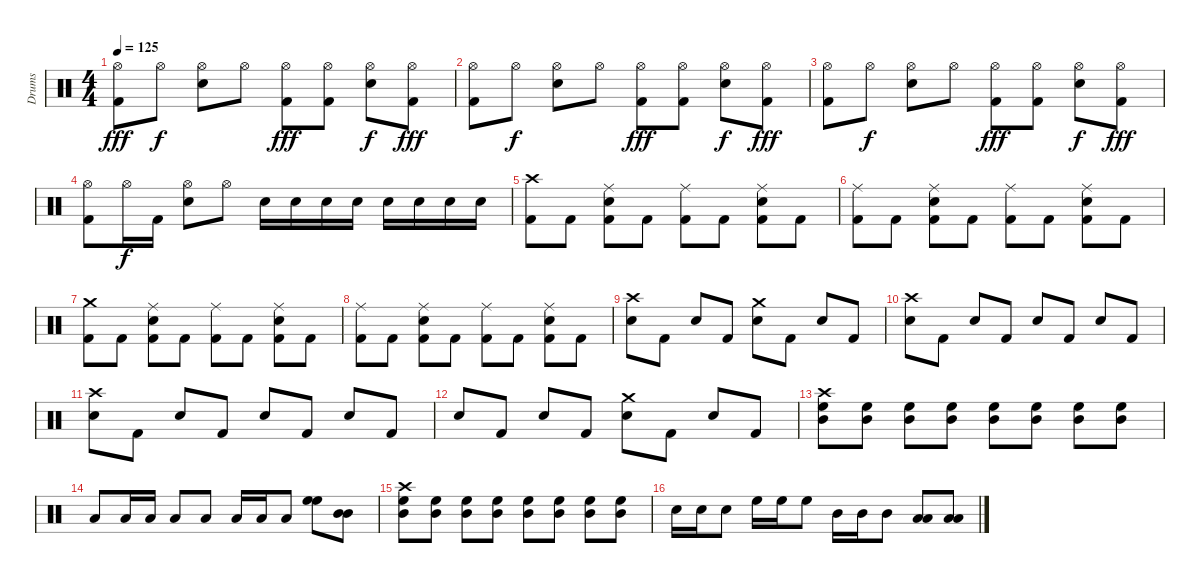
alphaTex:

\track ("Drums" "Drums") {instrument percussion}
\staff {score}
\articulation defaults
\ts (4 4)
\tempo 125
\clef neutral
\ks c
("Hi-Hat (open)" "Kick (hit) 2").8{dy fff} "Hi-Hat (open)".8{dy f} ("Hi-Hat (open)" "Snare (hit) 2").8 "Hi-Hat (open)".8 ("Hi-Hat (open)" "Kick (hit) 2").8{dy fff} ("Hi-Hat (open)" "Kick (hit) 2").8 ("Hi-Hat (open)" "Snare (hit) 2").8{dy f} ("Hi-Hat (open)" "Kick (hit) 2").8{dy fff} |
("Hi-Hat (open)" "Kick (hit) 2").8 "Hi-Hat (open)".8{dy f} ("Hi-Hat (open)" "Snare (hit) 2").8 "Hi-Hat (open)".8 ("Hi-Hat (open)" "Kick (hit) 2").8{dy fff} ("Hi-Hat (open)" "Kick (hit) 2").8 ("Hi-Hat (open)" "Snare (hit) 2").8{dy f} ("Hi-Hat (open)" "Kick (hit) 2").8{dy fff} |
("Hi-Hat (open)" "Kick (hit) 2").8 "Hi-Hat (open)".8{dy f} ("Hi-Hat (open)" "Snare (hit) 2").8 "Hi-Hat (open)".8 ("Hi-Hat (open)" "Kick (hit) 2").8{dy fff} ("Hi-Hat (open)" "Kick (hit) 2").8 ("Hi-Hat (open)" "Snare (hit) 2").8{dy f} ("Hi-Hat (open)" "Kick (hit) 2").8{dy fff} |
("Hi-Hat (open)" "Kick (hit) 2").8 "Hi-Hat (open)".16{dy f} "Kick (hit) 2".16 ("Hi-Hat (open)" "Snare (hit) 2").8 "Hi-Hat (open)".8 "Snare (hit) 2".16 "Snare (hit) 2".16 "Snare (hit) 2".16 "Snare (hit) 2".16 "Snare (hit) 2".16 "Snare (hit) 2".16 "Snare (hit) 2".16 "Snare (hit) 2".16 |
("Crash high (hit)" "Kick (hit) 2").8 "Kick (hit) 2".8 ("Ride (middle)" "Snare (hit) 2" "Kick (hit) 2").8 "Kick (hit) 2".8 ("Ride (middle)" "Kick (hit) 2").8 "Kick (hit) 2".8 ("Ride (middle)" "Snare (hit) 2" "Kick (hit) 2").8 "Kick (hit) 2".8 |
("Ride (middle)" "Kick (hit) 2").8 "Kick (hit) 2".8 ("Ride (middle)" "Snare (hit) 2" "Kick (hit) 2").8 "Kick (hit) 2".8 ("Ride (middle)" "Kick (hit) 2").8 "Kick (hit) 2".8 ("Ride (middle)" "Snare (hit) 2" "Kick (hit) 2").8 "Kick (hit) 2".8 |
("Crash medium (hit)" "Kick (hit) 2").8 "Kick (hit) 2".8 ("Ride (middle)" "Snare (hit) 2" "Kick (hit) 2").8 "Kick (hit) 2".8 ("Ride (middle)" "Kick (hit) 2").8 "Kick (hit) 2".8 ("Ride (middle)" "Snare (hit) 2" "Kick (hit) 2").8 "Kick (hit) 2".8 |
("Ride (middle)" "Kick (hit) 2").8 "Kick (hit) 2".8 ("Ride (middle)" "Snare (hit) 2" "Kick (hit) 2").8 "Kick (hit) 2".8 ("Ride (middle)" "Kick (hit) 2").8 "Kick (hit) 2".8 ("Ride (middle)" "Snare (hit) 2" "Kick (hit) 2").8 "Kick (hit) 2".8 |
("Crash high (hit)" "Snare (hit) 2").8 "Kick (hit) 2".8 "Snare (hit) 2".8 "Kick (hit) 2".8 ("Crash medium (hit)" "Snare (hit) 2").8 "Kick (hit) 2".8 "Snare (hit) 2".8 "Kick (hit) 2".8 |
("Crash high (hit)" "Snare (hit) 2").8 "Kick (hit) 2".8 "Snare (hit) 2".8 "Kick (hit) 2".8 "Snare (hit) 2".8 "Kick (hit) 2".8 "Snare (hit) 2".8 "Kick (hit) 2".8 |
("Crash high (hit)" "Snare (hit) 2").8 "Kick (hit) 2".8 "Snare (hit) 2".8 "Kick (hit) 2".8 "Snare (hit) 2".8 "Kick (hit) 2".8 "Snare (hit) 2".8 "Kick (hit) 2".8 |
"Snare (hit) 2".8 "Kick (hit) 2".8 "Snare (hit) 2".8 "Kick (hit) 2".8 ("Crash medium (hit)" "Snare (hit) 2").8 "Kick (hit) 2".8 "Snare (hit) 2".8 "Kick (hit) 2".8 |
("Crash high (hit)" "High Floor Tom (hit)" "Mid Tom (hit)").8 ("High Floor Tom (hit)" "Mid Tom (hit)").8 ("High Floor Tom (hit)" "Mid Tom (hit)").8 ("High Floor Tom (hit)" "Mid Tom (hit)").8 ("High Floor Tom (hit)" "Mid Tom (hit)").8 ("High Floor Tom (hit)" "Mid Tom (hit)").8 ("High Floor Tom (hit)" "Mid Tom (hit)").8 ("High Floor Tom (hit)" "Mid Tom (hit)").8 |
"Low Tom (hit)".8 "Low Floor Tom (hit)".16 "Low Floor Tom (hit)".16 "Low Floor Tom (hit)".8 "Low Tom (hit)".8 "Low Floor Tom (hit)".16 "Low Floor Tom (hit)".16 "Low Floor Tom (hit)".8 ("High Floor Tom (hit)" "High Floor Tom (hit)").8 ("Mid Tom (hit)" "Mid Tom (hit)").8 |
("Crash high (hit)" "High Floor Tom (hit)" "Mid Tom (hit)").8 ("High Floor Tom (hit)" "Mid Tom (hit)").8 ("High Floor Tom (hit)" "Mid Tom (hit)").8 ("High Floor Tom (hit)" "Mid Tom (hit)").8 ("High Floor Tom (hit)" "Mid Tom (hit)").8 ("High Floor Tom (hit)" "Mid Tom (hit)").8 ("High Floor Tom (hit)" "Mid Tom (hit)").8 ("High Floor Tom (hit)" "Mid Tom (hit)").8 |
"Snare (hit) 2".16 "Snare (hit) 2".16 "Snare (hit) 2".8 "High Floor Tom (hit)".16 "High Floor Tom (hit)".16 "High Floor Tom (hit)".8 "Mid Tom (hit)".16 "Mid Tom (hit)".16 "Mid Tom (hit)".8 ("Low Tom (hit)" "Low Tom (hit)").8 ("Low Floor Tom (hit)" "Low Floor Tom (hit)").8
